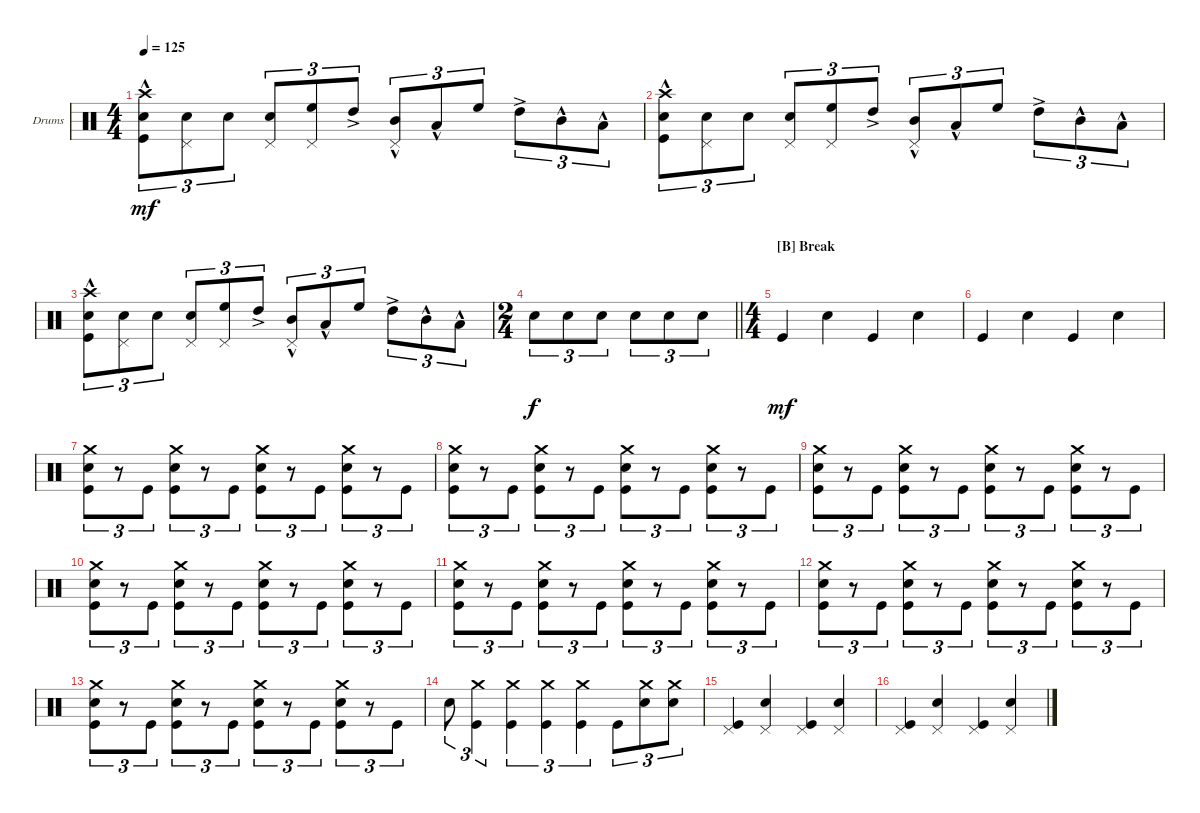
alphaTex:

\defaultSystemsLayout 4
\bracketExtendMode groupsimilarinstruments
\firstSystemTrackNameOrientation horizontal
\otherSystemsTrackNameOrientation horizontal
\track ("Drumkit" "Drums") {instrument percussion}
\staff {score}
\articulation defaults
\ts (4 4)
\tempo 125
\clef neutral
\ks c
("Kick (hit)"{hac} "Snare (hit) 2" "Crash high (hit)").8{tu (3 2) dy mf} ("Snare (hit) 2" "Pedal Hi-Hat (hit)").8{tu (3 2)} "Snare (hit) 2".8{tu (3 2)} ("Snare (hit) 2" "Pedal Hi-Hat (hit)").8{tu (3 2)} ("High Floor Tom (hit)" "Pedal Hi-Hat (hit)").8{tu (3 2)} "High Tom (hit)"{ac}.8{tu (3 2)} ("Mid Tom (hit)"{hac} "Pedal Hi-Hat (hit)").8{tu (3 2)} "Low Tom (hit)"{hac}.8{tu (3 2)} "High Floor Tom (hit)".8{tu (3 2)} "High Tom (hit)"{ac}.8{tu (3 2)} "Mid Tom (hit)"{hac}.8{tu (3 2)} "Low Tom (hit)"{hac}.8{tu (3 2)} |
("Kick (hit)"{hac} "Snare (hit) 2" "Crash high (hit)").8{tu (3 2)} ("Snare (hit) 2" "Pedal Hi-Hat (hit)").8{tu (3 2)} "Snare (hit) 2".8{tu (3 2)} ("Snare (hit) 2" "Pedal Hi-Hat (hit)").8{tu (3 2)} ("High Floor Tom (hit)" "Pedal Hi-Hat (hit)").8{tu (3 2)} "High Tom (hit)"{ac}.8{tu (3 2)} ("Mid Tom (hit)"{hac} "Pedal Hi-Hat (hit)").8{tu (3 2)} "Low Tom (hit)"{hac}.8{tu (3 2)} "High Floor Tom (hit)".8{tu (3 2)} "High Tom (hit)"{ac}.8{tu (3 2)} "Mid Tom (hit)"{hac}.8{tu (3 2)} "Low Tom (hit)"{hac}.8{tu (3 2)} |
("Kick (hit)"{hac} "Snare (hit) 2" "Crash high (hit)").8{tu (3 2)} ("Snare (hit) 2" "Pedal Hi-Hat (hit)").8{tu (3 2)} "Snare (hit) 2".8{tu (3 2)} ("Snare (hit) 2" "Pedal Hi-Hat (hit)").8{tu (3 2)} ("High Floor Tom (hit)" "Pedal Hi-Hat (hit)").8{tu (3 2)} "High Tom (hit)"{ac}.8{tu (3 2)} ("Mid Tom (hit)"{hac} "Pedal Hi-Hat (hit)").8{tu (3 2)} "Low Tom (hit)"{hac}.8{tu (3 2)} "High Floor Tom (hit)".8{tu (3 2)} "High Tom (hit)"{ac}.8{tu (3 2)} "Mid Tom (hit)"{hac}.8{tu (3 2)} "Low Tom (hit)"{hac}.8{tu (3 2)} |
\ts (2 4)
\barLineRight lightlight "Snare (hit) 2".8{tu (3 2) dy f} "Snare (hit) 2".8{tu (3 2)} "Snare (hit) 2".8{tu (3 2)} "Snare (hit) 2".8{tu (3 2)} "Snare (hit) 2".8{tu (3 2)} "Snare (hit) 2".8{tu (3 2)}
|
\ts (4 4)
\section ("B" "Break")
"Kick (hit)".4{dy mf} "Snare (hit) 2".4 "Kick (hit)".4 "Snare (hit) 2".4 |
"Kick (hit)".4 "Snare (hit) 2".4 "Kick (hit)".4 "Snare (hit) 2".4 |
("Kick (hit)" "Crash medium (hit)" "Snare (hit) 2").8{tu (3 2)} r.8{tu (3 2)} "Kick (hit)".8{tu (3 2)} ("Kick (hit)" "Snare (hit) 2" "Crash medium (hit)").8{tu (3 2)} r.8{tu (3 2)} "Kick (hit)".8{tu (3 2)} ("Kick (hit)" "Snare (hit) 2" "Crash medium (hit)").8{tu (3 2)} r.8{tu (3 2)} "Kick (hit)".8{tu (3 2)} ("Kick (hit)" "Crash medium (hit)" "Snare (hit) 2").8{tu (3 2)} r.8{tu (3 2)} "Kick (hit)".8{tu (3 2)} |
("Kick (hit)" "Crash medium (hit)" "Snare (hit) 2").8{tu (3 2)} r.8{tu (3 2)} "Kick (hit)".8{tu (3 2)} ("Kick (hit)" "Snare (hit) 2" "Crash medium (hit)").8{tu (3 2)} r.8{tu (3 2)} "Kick (hit)".8{tu (3 2)} ("Kick (hit)" "Snare (hit) 2" "Crash medium (hit)").8{tu (3 2)} r.8{tu (3 2)} "Kick (hit)".8{tu (3 2)} ("Kick (hit)" "Crash medium (hit)" "Snare (hit) 2").8{tu (3 2)} r.8{tu (3 2)} "Kick (hit)".8{tu (3 2)} |
("Kick (hit)" "Crash medium (hit)" "Snare (hit) 2").8{tu (3 2)} r.8{tu (3 2)} "Kick (hit)".8{tu (3 2)} ("Kick (hit)" "Snare (hit) 2" "Crash medium (hit)").8{tu (3 2)} r.8{tu (3 2)} "Kick (hit)".8{tu (3 2)} ("Kick (hit)" "Snare (hit) 2" "Crash medium (hit)").8{tu (3 2)} r.8{tu (3 2)} "Kick (hit)".8{tu (3 2)} ("Kick (hit)" "Crash medium (hit)" "Snare (hit) 2").8{tu (3 2)} r.8{tu (3 2)} "Kick (hit)".8{tu (3 2)} |
("Kick (hit)" "Crash medium (hit)" "Snare (hit) 2").8{tu (3 2)} r.8{tu (3 2)} "Kick (hit)".8{tu (3 2)} ("Kick (hit)" "Snare (hit) 2" "Crash medium (hit)").8{tu (3 2)} r.8{tu (3 2)} "Kick (hit)".8{tu (3 2)} ("Kick (hit)" "Snare (hit) 2" "Crash medium (hit)").8{tu (3 2)} r.8{tu (3 2)} "Kick (hit)".8{tu (3 2)} ("Kick (hit)" "Crash medium (hit)" "Snare (hit) 2").8{tu (3 2)} r.8{tu (3 2)} "Kick (hit)".8{tu (3 2)} |
("Kick (hit)" "Crash medium (hit)" "Snare (hit) 2").8{tu (3 2)} r.8{tu (3 2)} "Kick (hit)".8{tu (3 2)} ("Kick (hit)" "Snare (hit) 2" "Crash medium (hit)").8{tu (3 2)} r.8{tu (3 2)} "Kick (hit)".8{tu (3 2)} ("Kick (hit)" "Snare (hit) 2" "Crash medium (hit)").8{tu (3 2)} r.8{tu (3 2)} "Kick (hit)".8{tu (3 2)} ("Kick (hit)" "Crash medium (hit)" "Snare (hit) 2").8{tu (3 2)} r.8{tu (3 2)} "Kick (hit)".8{tu (3 2)} |
("Kick (hit)" "Crash medium (hit)" "Snare (hit) 2").8{tu (3 2)} r.8{tu (3 2)} "Kick (hit)".8{tu (3 2)} ("Kick (hit)" "Snare (hit) 2" "Crash medium (hit)").8{tu (3 2)} r.8{tu (3 2)} "Kick (hit)".8{tu (3 2)} ("Kick (hit)" "Snare (hit) 2" "Crash medium (hit)").8{tu (3 2)} r.8{tu (3 2)} "Kick (hit)".8{tu (3 2)} ("Kick (hit)" "Crash medium (hit)" "Snare (hit) 2").8{tu (3 2)} r.8{tu (3 2)} "Kick (hit)".8{tu (3 2)} |
("Kick (hit)" "Crash medium (hit)" "Snare (hit) 2").8{tu (3 2)} r.8{tu (3 2)} "Kick (hit)".8{tu (3 2)} ("Kick (hit)" "Snare (hit) 2" "Crash medium (hit)").8{tu (3 2)} r.8{tu (3 2)} "Kick (hit)".8{tu (3 2)} ("Kick (hit)" "Snare (hit) 2" "Crash medium (hit)").8{tu (3 2)} r.8{tu (3 2)} "Kick (hit)".8{tu (3 2)} ("Kick (hit)" "Crash medium (hit)" "Snare (hit) 2").8{tu (3 2)} r.8{tu (3 2)} "Kick (hit)".8{tu (3 2)} |
"Snare (hit) 2".8{tu (3 2)} ("Kick (hit)" "Crash medium (hit)").4{tu (3 2)} ("Kick (hit)" "Crash medium (hit)").4{tu (3 2)} ("Kick (hit)" "Crash medium (hit)").4{tu (3 2)} ("Kick (hit)" "Crash medium (hit)").4{tu (3 2)} "Kick (hit)".8{tu (3 2)} ("Snare (hit) 2" "Crash medium (hit)").8{tu (3 2)} ("Snare (hit) 2" "Crash medium (hit)").8{tu (3 2)} |
("Kick (hit)" "Pedal Hi-Hat (hit)").4 ("Snare (hit) 2" "Pedal Hi-Hat (hit)").4 ("Kick (hit)" "Pedal Hi-Hat (hit)").4 ("Snare (hit) 2" "Pedal Hi-Hat (hit)").4 |
("Kick (hit)" "Pedal Hi-Hat (hit)").4 ("Snare (hit) 2" "Pedal Hi-Hat (hit)").4 ("Kick (hit)" "Pedal Hi-Hat (hit)").4 ("Snare (hit) 2" "Pedal Hi-Hat (hit)").4
